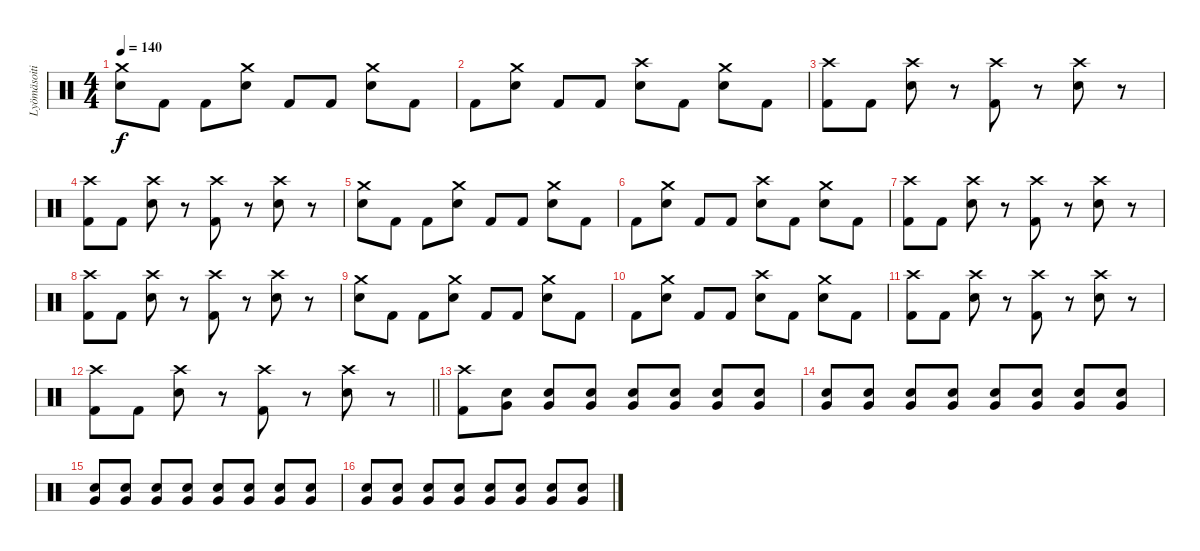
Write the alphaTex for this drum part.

\track ("Lyömäsoitin" "Lyömäsoiti") {instrument percussion}
\staff {score}
\articulation defaults
\ts (4 4)
\tempo 140
\clef neutral
\ks c
("Crash medium (hit)" "Electric Snare (hit)").8{dy f} "Kick (hit) 2".8 "Kick (hit) 2".8 ("Crash medium (hit)" "Electric Snare (hit)").8 "Kick (hit) 2".8 "Kick (hit) 2".8 ("Crash medium (hit)" "Electric Snare (hit)").8 "Kick (hit) 2".8 |
"Kick (hit) 2".8 ("Crash medium (hit)" "Electric Snare (hit)").8 "Kick (hit) 2".8 "Kick (hit) 2".8 ("Crash high (hit)" "Electric Snare (hit)").8 "Kick (hit) 2".8 ("Crash medium (hit)" "Electric Snare (hit)").8 "Kick (hit) 2".8 |
("Crash high (hit)" "Kick (hit) 2").8 "Kick (hit) 2".8 ("Crash high (hit)" "Electric Snare (hit)").8 r.8 ("Crash high (hit)" "Kick (hit) 2").8 r.8 ("Crash high (hit)" "Electric Snare (hit)").8 r.8 |
("Crash high (hit)" "Kick (hit) 2").8 "Kick (hit) 2".8 ("Crash high (hit)" "Electric Snare (hit)").8 r.8 ("Crash high (hit)" "Kick (hit) 2").8 r.8 ("Crash high (hit)" "Electric Snare (hit)").8 r.8 |
("Crash medium (hit)" "Electric Snare (hit)").8 "Kick (hit) 2".8 "Kick (hit) 2".8 ("Crash medium (hit)" "Electric Snare (hit)").8 "Kick (hit) 2".8 "Kick (hit) 2".8 ("Crash medium (hit)" "Electric Snare (hit)").8 "Kick (hit) 2".8 |
"Kick (hit) 2".8 ("Crash medium (hit)" "Electric Snare (hit)").8 "Kick (hit) 2".8 "Kick (hit) 2".8 ("Crash high (hit)" "Electric Snare (hit)").8 "Kick (hit) 2".8 ("Crash medium (hit)" "Electric Snare (hit)").8 "Kick (hit) 2".8 |
("Crash high (hit)" "Kick (hit) 2").8 "Kick (hit) 2".8 ("Crash high (hit)" "Electric Snare (hit)").8 r.8 ("Crash high (hit)" "Kick (hit) 2").8 r.8 ("Crash high (hit)" "Electric Snare (hit)").8 r.8 |
("Crash high (hit)" "Kick (hit) 2").8 "Kick (hit) 2".8 ("Crash high (hit)" "Electric Snare (hit)").8 r.8 ("Crash high (hit)" "Kick (hit) 2").8 r.8 ("Crash high (hit)" "Electric Snare (hit)").8 r.8 |
("Crash medium (hit)" "Electric Snare (hit)").8 "Kick (hit) 2".8 "Kick (hit) 2".8 ("Crash medium (hit)" "Electric Snare (hit)").8 "Kick (hit) 2".8 "Kick (hit) 2".8 ("Crash medium (hit)" "Electric Snare (hit)").8 "Kick (hit) 2".8 |
"Kick (hit) 2".8 ("Crash medium (hit)" "Electric Snare (hit)").8 "Kick (hit) 2".8 "Kick (hit) 2".8 ("Crash high (hit)" "Electric Snare (hit)").8 "Kick (hit) 2".8 ("Crash medium (hit)" "Electric Snare (hit)").8 "Kick (hit) 2".8 |
("Crash high (hit)" "Kick (hit) 2").8 "Kick (hit) 2".8 ("Crash high (hit)" "Electric Snare (hit)").8 r.8 ("Crash high (hit)" "Kick (hit) 2").8 r.8 ("Crash high (hit)" "Electric Snare (hit)").8 r.8 |
\barLineRight lightlight
("Crash high (hit)" "Kick (hit) 2").8 "Kick (hit) 2".8 ("Crash high (hit)" "Electric Snare (hit)").8 r.8 ("Crash high (hit)" "Kick (hit) 2").8 r.8 ("Crash high (hit)" "Electric Snare (hit)").8 r.8 |
("Crash high (hit)" "Kick (hit) 2").8 ("Very Low Tom (hit)" "Electric Snare (hit)").8 ("Very Low Tom (hit)" "Electric Snare (hit)").8 ("Very Low Tom (hit)" "Electric Snare (hit)").8 ("Very Low Tom (hit)" "Electric Snare (hit)").8 ("Very Low Tom (hit)" "Electric Snare (hit)").8 ("Very Low Tom (hit)" "Electric Snare (hit)").8 ("Very Low Tom (hit)" "Electric Snare (hit)").8 |
("Very Low Tom (hit)" "Electric Snare (hit)").8 ("Very Low Tom (hit)" "Electric Snare (hit)").8 ("Very Low Tom (hit)" "Electric Snare (hit)").8 ("Very Low Tom (hit)" "Electric Snare (hit)").8 ("Very Low Tom (hit)" "Electric Snare (hit)").8 ("Very Low Tom (hit)" "Electric Snare (hit)").8 ("Very Low Tom (hit)" "Electric Snare (hit)").8 ("Very Low Tom (hit)" "Electric Snare (hit)").8 |
("Very Low Tom (hit)" "Electric Snare (hit)").8 ("Very Low Tom (hit)" "Electric Snare (hit)").8 ("Very Low Tom (hit)" "Electric Snare (hit)").8 ("Very Low Tom (hit)" "Electric Snare (hit)").8 ("Very Low Tom (hit)" "Electric Snare (hit)").8 ("Very Low Tom (hit)" "Electric Snare (hit)").8 ("Very Low Tom (hit)" "Electric Snare (hit)").8 ("Very Low Tom (hit)" "Electric Snare (hit)").8 |
("Very Low Tom (hit)" "Electric Snare (hit)").8 ("Very Low Tom (hit)" "Electric Snare (hit)").8 ("Very Low Tom (hit)" "Electric Snare (hit)").8 ("Very Low Tom (hit)" "Electric Snare (hit)").8 ("Very Low Tom (hit)" "Electric Snare (hit)").8 ("Very Low Tom (hit)" "Electric Snare (hit)").8 ("Very Low Tom (hit)" "Electric Snare (hit)").8 ("Very Low Tom (hit)" "Electric Snare (hit)").8
